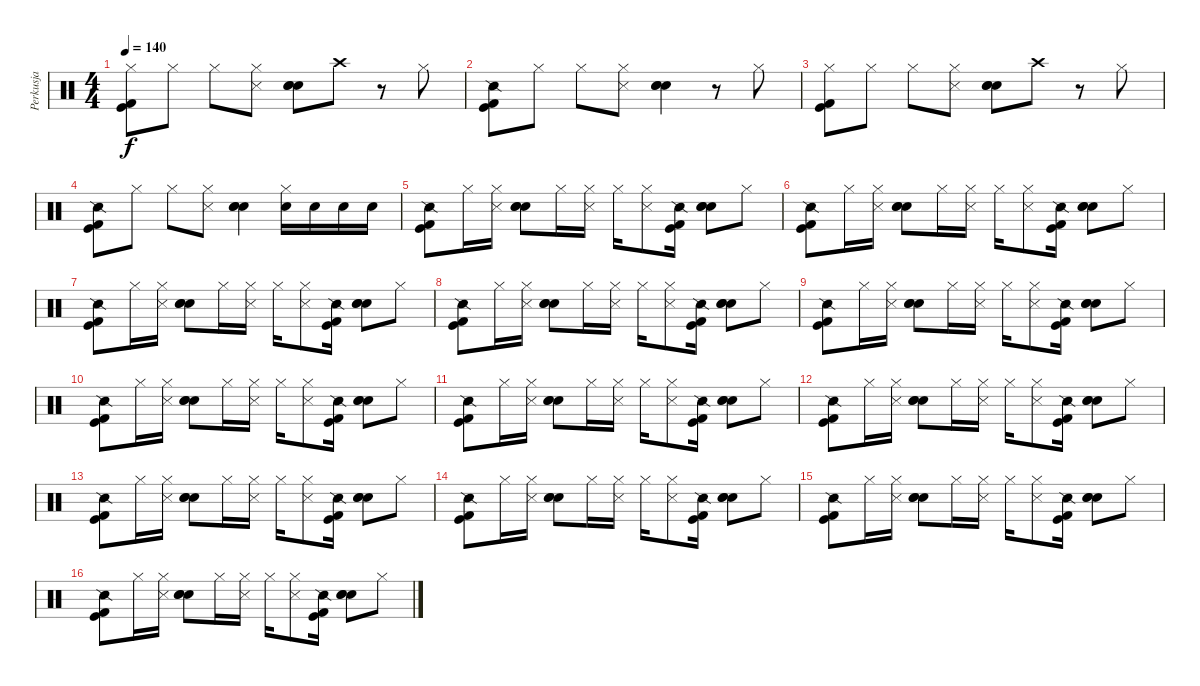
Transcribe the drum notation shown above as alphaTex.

\track ("Perkusja" "Perkusja") {instrument percussion}
\staff {score}
\articulation defaults
\ts (4 4)
\tempo 140
\clef neutral
\ks c
("Kick (hit)" "Kick (hit) 2" "Hi-Hat (closed)").8{dy f} "Hi-Hat (closed)".8 "Hi-Hat (closed)".8 ("Hi-Hat (closed)" "Snare (side stick) 3").8 ("Snare (hit) 2" "Electric Snare (hit)" "Hand Clap (hit)").8 "Crash high (hit)".8 r.8 "Hi-Hat (closed)".8 |
("Kick (hit)" "Kick (hit) 2" "Snare (side stick) 2").8 "Hi-Hat (closed)".8 "Hi-Hat (closed)".8 ("Hi-Hat (closed)" "Snare (side stick) 3").8 ("Snare (hit) 2" "Electric Snare (hit)" "Hand Clap (hit)").4 r.8 "Hi-Hat (closed)".8 |
("Kick (hit)" "Kick (hit) 2" "Hi-Hat (closed)").8 "Hi-Hat (closed)".8 "Hi-Hat (closed)".8 ("Hi-Hat (closed)" "Snare (side stick) 3").8 ("Snare (hit) 2" "Electric Snare (hit)" "Hand Clap (hit)").8 "Crash high (hit)".8 r.8 "Hi-Hat (closed)".8 |
("Kick (hit)" "Kick (hit) 2" "Snare (side stick) 2").8 "Hi-Hat (closed)".8 "Hi-Hat (closed)".8 ("Hi-Hat (closed)" "Snare (side stick) 3").8 ("Snare (hit) 2" "Electric Snare (hit)" "Hand Clap (hit)").4 ("Snare (hit) 2" "Hi-Hat (closed)").16 "Snare (hit) 2".16 "Snare (hit) 2".16 "Snare (hit) 2".16 |
("Kick (hit)" "Kick (hit) 2" "Snare (side stick) 2").8 "Hi-Hat (closed)".16 ("Hi-Hat (closed)" "Snare (side stick) 3").16 ("Snare (hit) 2" "Electric Snare (hit)" "Hand Clap (hit)").8 "Hi-Hat (closed)".16 ("Hi-Hat (closed)" "Snare (side stick) 3").16 "Hi-Hat (closed)".16 ("Hi-Hat (closed)" "Snare (side stick) 3").8 ("Kick (hit)" "Kick (hit) 2" "Snare (side stick) 2").16 ("Snare (hit) 2" "Electric Snare (hit)" "Hand Clap (hit)").8 "Hi-Hat (closed)".8 |
("Kick (hit)" "Kick (hit) 2" "Snare (side stick) 2").8 "Hi-Hat (closed)".16 ("Hi-Hat (closed)" "Snare (side stick) 3").16 ("Snare (hit) 2" "Electric Snare (hit)" "Hand Clap (hit)").8 "Hi-Hat (closed)".16 ("Hi-Hat (closed)" "Snare (side stick) 3").16 "Hi-Hat (closed)".16 ("Hi-Hat (closed)" "Snare (side stick) 3").8 ("Kick (hit)" "Kick (hit) 2" "Snare (side stick) 2").16 ("Snare (hit) 2" "Electric Snare (hit)" "Hand Clap (hit)").8 "Hi-Hat (closed)".8 |
("Kick (hit)" "Kick (hit) 2" "Snare (side stick) 2").8 "Hi-Hat (closed)".16 ("Hi-Hat (closed)" "Snare (side stick) 3").16 ("Snare (hit) 2" "Electric Snare (hit)" "Hand Clap (hit)").8 "Hi-Hat (closed)".16 ("Hi-Hat (closed)" "Snare (side stick) 3").16 "Hi-Hat (closed)".16 ("Hi-Hat (closed)" "Snare (side stick) 3").8 ("Kick (hit)" "Kick (hit) 2" "Snare (side stick) 2").16 ("Snare (hit) 2" "Electric Snare (hit)" "Hand Clap (hit)").8 "Hi-Hat (closed)".8 |
("Kick (hit)" "Kick (hit) 2" "Snare (side stick) 2").8 "Hi-Hat (closed)".16 ("Hi-Hat (closed)" "Snare (side stick) 3").16 ("Snare (hit) 2" "Electric Snare (hit)" "Hand Clap (hit)").8 "Hi-Hat (closed)".16 ("Hi-Hat (closed)" "Snare (side stick) 3").16 "Hi-Hat (closed)".16 ("Hi-Hat (closed)" "Snare (side stick) 3").8 ("Kick (hit)" "Kick (hit) 2" "Snare (side stick) 2").16 ("Snare (hit) 2" "Electric Snare (hit)" "Hand Clap (hit)").8 "Hi-Hat (closed)".8 |
("Kick (hit)" "Kick (hit) 2" "Snare (side stick) 2").8 "Hi-Hat (closed)".16 ("Hi-Hat (closed)" "Snare (side stick) 3").16 ("Snare (hit) 2" "Electric Snare (hit)" "Hand Clap (hit)").8 "Hi-Hat (closed)".16 ("Hi-Hat (closed)" "Snare (side stick) 3").16 "Hi-Hat (closed)".16 ("Hi-Hat (closed)" "Snare (side stick) 3").8 ("Kick (hit)" "Kick (hit) 2" "Snare (side stick) 2").16 ("Snare (hit) 2" "Electric Snare (hit)" "Hand Clap (hit)").8 "Hi-Hat (closed)".8 |
("Kick (hit)" "Kick (hit) 2" "Snare (side stick) 2").8 "Hi-Hat (closed)".16 ("Hi-Hat (closed)" "Snare (side stick) 3").16 ("Snare (hit) 2" "Electric Snare (hit)" "Hand Clap (hit)").8 "Hi-Hat (closed)".16 ("Hi-Hat (closed)" "Snare (side stick) 3").16 "Hi-Hat (closed)".16 ("Hi-Hat (closed)" "Snare (side stick) 3").8 ("Kick (hit)" "Kick (hit) 2" "Snare (side stick) 2").16 ("Snare (hit) 2" "Electric Snare (hit)" "Hand Clap (hit)").8 "Hi-Hat (closed)".8 |
("Kick (hit)" "Kick (hit) 2" "Snare (side stick) 2").8 "Hi-Hat (closed)".16 ("Hi-Hat (closed)" "Snare (side stick) 3").16 ("Snare (hit) 2" "Electric Snare (hit)" "Hand Clap (hit)").8 "Hi-Hat (closed)".16 ("Hi-Hat (closed)" "Snare (side stick) 3").16 "Hi-Hat (closed)".16 ("Hi-Hat (closed)" "Snare (side stick) 3").8 ("Kick (hit)" "Kick (hit) 2" "Snare (side stick) 2").16 ("Snare (hit) 2" "Electric Snare (hit)" "Hand Clap (hit)").8 "Hi-Hat (closed)".8 |
("Kick (hit)" "Kick (hit) 2" "Snare (side stick) 2").8 "Hi-Hat (closed)".16 ("Hi-Hat (closed)" "Snare (side stick) 3").16 ("Snare (hit) 2" "Electric Snare (hit)" "Hand Clap (hit)").8 "Hi-Hat (closed)".16 ("Hi-Hat (closed)" "Snare (side stick) 3").16 "Hi-Hat (closed)".16 ("Hi-Hat (closed)" "Snare (side stick) 3").8 ("Kick (hit)" "Kick (hit) 2" "Snare (side stick) 2").16 ("Snare (hit) 2" "Electric Snare (hit)" "Hand Clap (hit)").8 "Hi-Hat (closed)".8 |
("Kick (hit)" "Kick (hit) 2" "Snare (side stick) 2").8 "Hi-Hat (closed)".16 ("Hi-Hat (closed)" "Snare (side stick) 3").16 ("Snare (hit) 2" "Electric Snare (hit)" "Hand Clap (hit)").8 "Hi-Hat (closed)".16 ("Hi-Hat (closed)" "Snare (side stick) 3").16 "Hi-Hat (closed)".16 ("Hi-Hat (closed)" "Snare (side stick) 3").8 ("Kick (hit)" "Kick (hit) 2" "Snare (side stick) 2").16 ("Snare (hit) 2" "Electric Snare (hit)" "Hand Clap (hit)").8 "Hi-Hat (closed)".8 |
("Kick (hit)" "Kick (hit) 2" "Snare (side stick) 2").8 "Hi-Hat (closed)".16 ("Hi-Hat (closed)" "Snare (side stick) 3").16 ("Snare (hit) 2" "Electric Snare (hit)" "Hand Clap (hit)").8 "Hi-Hat (closed)".16 ("Hi-Hat (closed)" "Snare (side stick) 3").16 "Hi-Hat (closed)".16 ("Hi-Hat (closed)" "Snare (side stick) 3").8 ("Kick (hit)" "Kick (hit) 2" "Snare (side stick) 2").16 ("Snare (hit) 2" "Electric Snare (hit)" "Hand Clap (hit)").8 "Hi-Hat (closed)".8 |
("Kick (hit)" "Kick (hit) 2" "Snare (side stick) 2").8 "Hi-Hat (closed)".16 ("Hi-Hat (closed)" "Snare (side stick) 3").16 ("Snare (hit) 2" "Electric Snare (hit)" "Hand Clap (hit)").8 "Hi-Hat (closed)".16 ("Hi-Hat (closed)" "Snare (side stick) 3").16 "Hi-Hat (closed)".16 ("Hi-Hat (closed)" "Snare (side stick) 3").8 ("Kick (hit)" "Kick (hit) 2" "Snare (side stick) 2").16 ("Snare (hit) 2" "Electric Snare (hit)" "Hand Clap (hit)").8 "Hi-Hat (closed)".8 |
("Kick (hit)" "Kick (hit) 2" "Snare (side stick) 2").8 "Hi-Hat (closed)".16 ("Hi-Hat (closed)" "Snare (side stick) 3").16 ("Snare (hit) 2" "Electric Snare (hit)" "Hand Clap (hit)").8 "Hi-Hat (closed)".16 ("Hi-Hat (closed)" "Snare (side stick) 3").16 "Hi-Hat (closed)".16 ("Hi-Hat (closed)" "Snare (side stick) 3").8 ("Kick (hit)" "Kick (hit) 2" "Snare (side stick) 2").16 ("Snare (hit) 2" "Electric Snare (hit)" "Hand Clap (hit)").8 "Hi-Hat (closed)".8
